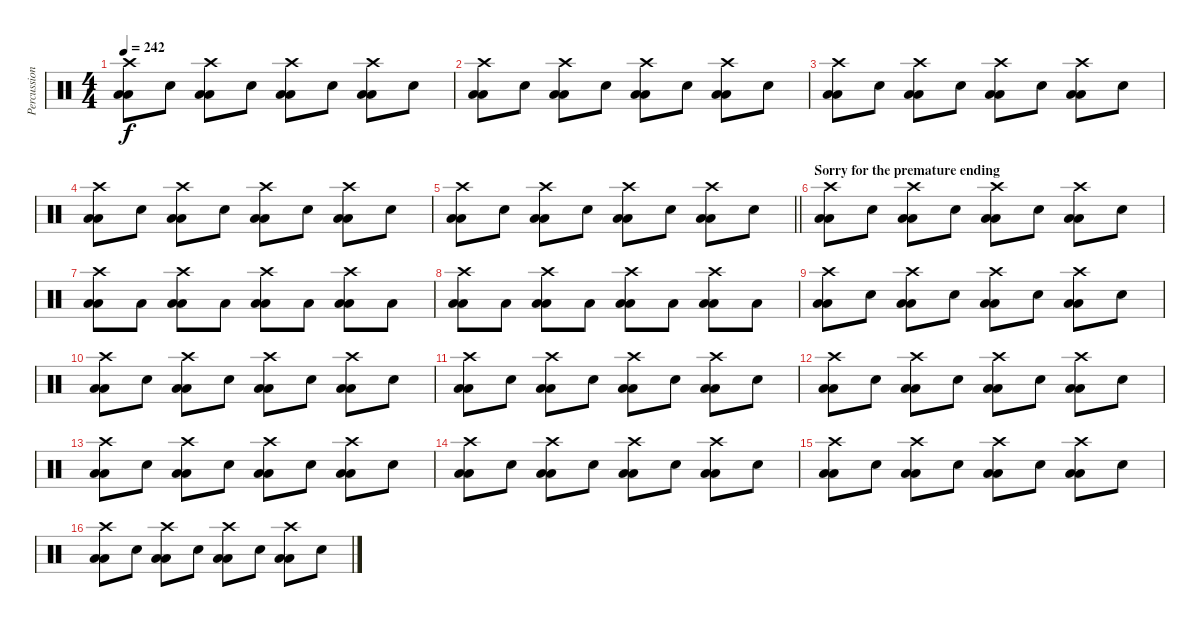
\track ("Percussion" "Percussion") {instrument percussion}
\staff {score}
\articulation defaults
\ts (4 4)
\tempo 242
\clef neutral
\ks c
("Crash high (hit)" "Low Floor Tom (hit)" "Low Tom (hit)").8{dy f} "Electric Snare (hit)".8 ("Crash high (hit)" "Low Floor Tom (hit)" "Low Tom (hit)").8 "Electric Snare (hit)".8 ("Crash high (hit)" "Low Floor Tom (hit)" "Low Tom (hit)").8 "Electric Snare (hit)".8 ("Crash high (hit)" "Low Floor Tom (hit)" "Low Tom (hit)").8 "Electric Snare (hit)".8 |
("Crash high (hit)" "Low Floor Tom (hit)" "Low Tom (hit)").8 "Electric Snare (hit)".8 ("Crash high (hit)" "Low Floor Tom (hit)" "Low Tom (hit)").8 "Electric Snare (hit)".8 ("Crash high (hit)" "Low Floor Tom (hit)" "Low Tom (hit)").8 "Electric Snare (hit)".8 ("Crash high (hit)" "Low Floor Tom (hit)" "Low Tom (hit)").8 "Electric Snare (hit)".8 |
("Crash high (hit)" "Low Floor Tom (hit)" "Low Tom (hit)").8 "Electric Snare (hit)".8 ("Crash high (hit)" "Low Floor Tom (hit)" "Low Tom (hit)").8 "Electric Snare (hit)".8 ("Crash high (hit)" "Low Floor Tom (hit)" "Low Tom (hit)").8 "Electric Snare (hit)".8 ("Crash high (hit)" "Low Floor Tom (hit)" "Low Tom (hit)").8 "Electric Snare (hit)".8 |
("Crash high (hit)" "Low Floor Tom (hit)" "Low Tom (hit)").8 "Electric Snare (hit)".8 ("Crash high (hit)" "Low Floor Tom (hit)" "Low Tom (hit)").8 "Electric Snare (hit)".8 ("Crash high (hit)" "Low Floor Tom (hit)" "Low Tom (hit)").8 "Electric Snare (hit)".8 ("Crash high (hit)" "Low Floor Tom (hit)" "Low Tom (hit)").8 "Electric Snare (hit)".8 |
\barLineRight lightlight
("Crash high (hit)" "Low Floor Tom (hit)" "Low Tom (hit)").8 "Electric Snare (hit)".8 ("Crash high (hit)" "Low Floor Tom (hit)" "Low Tom (hit)").8 "Electric Snare (hit)".8 ("Crash high (hit)" "Low Floor Tom (hit)" "Low Tom (hit)").8 "Electric Snare (hit)".8 ("Crash high (hit)" "Low Floor Tom (hit)" "Low Tom (hit)").8 "Electric Snare (hit)".8 |
\section ("" "Sorry for the premature ending")
("Crash high (hit)" "Low Floor Tom (hit)" "Low Tom (hit)").8 "Electric Snare (hit)".8 ("Crash high (hit)" "Low Floor Tom (hit)" "Low Tom (hit)").8 "Electric Snare (hit)".8 ("Crash high (hit)" "Low Floor Tom (hit)" "Low Tom (hit)").8 "Electric Snare (hit)".8 ("Crash high (hit)" "Low Floor Tom (hit)" "Low Tom (hit)").8 "Electric Snare (hit)".8 |
("Crash high (hit)" "Low Floor Tom (hit)" "Low Tom (hit)").8 "Low Floor Tom (hit)".8 ("Crash high (hit)" "Low Floor Tom (hit)" "Low Tom (hit)").8 "Low Floor Tom (hit)".8 ("Crash high (hit)" "Low Floor Tom (hit)" "Low Tom (hit)").8 "Low Floor Tom (hit)".8 ("Crash high (hit)" "Low Floor Tom (hit)" "Low Tom (hit)").8 "Low Floor Tom (hit)".8 |
("Crash high (hit)" "Low Floor Tom (hit)" "Low Tom (hit)").8 "Low Floor Tom (hit)".8 ("Crash high (hit)" "Low Floor Tom (hit)" "Low Tom (hit)").8 "Low Floor Tom (hit)".8 ("Crash high (hit)" "Low Floor Tom (hit)" "Low Tom (hit)").8 "Low Floor Tom (hit)".8 ("Crash high (hit)" "Low Floor Tom (hit)" "Low Tom (hit)").8 "Low Floor Tom (hit)".8 |
("Crash high (hit)" "Low Floor Tom (hit)" "Low Tom (hit)").8 "Electric Snare (hit)".8 ("Crash high (hit)" "Low Floor Tom (hit)" "Low Tom (hit)").8 "Electric Snare (hit)".8 ("Crash high (hit)" "Low Floor Tom (hit)" "Low Tom (hit)").8 "Electric Snare (hit)".8 ("Crash high (hit)" "Low Floor Tom (hit)" "Low Tom (hit)").8 "Electric Snare (hit)".8 |
("Crash high (hit)" "Low Floor Tom (hit)" "Low Tom (hit)").8 "Electric Snare (hit)".8 ("Crash high (hit)" "Low Floor Tom (hit)" "Low Tom (hit)").8 "Electric Snare (hit)".8 ("Crash high (hit)" "Low Floor Tom (hit)" "Low Tom (hit)").8 "Electric Snare (hit)".8 ("Crash high (hit)" "Low Floor Tom (hit)" "Low Tom (hit)").8 "Electric Snare (hit)".8 |
("Crash high (hit)" "Low Floor Tom (hit)" "Low Tom (hit)").8 "Electric Snare (hit)".8 ("Crash high (hit)" "Low Floor Tom (hit)" "Low Tom (hit)").8 "Electric Snare (hit)".8 ("Crash high (hit)" "Low Floor Tom (hit)" "Low Tom (hit)").8 "Electric Snare (hit)".8 ("Crash high (hit)" "Low Floor Tom (hit)" "Low Tom (hit)").8 "Electric Snare (hit)".8 |
("Crash high (hit)" "Low Floor Tom (hit)" "Low Tom (hit)").8 "Electric Snare (hit)".8 ("Crash high (hit)" "Low Floor Tom (hit)" "Low Tom (hit)").8 "Electric Snare (hit)".8 ("Crash high (hit)" "Low Floor Tom (hit)" "Low Tom (hit)").8 "Electric Snare (hit)".8 ("Crash high (hit)" "Low Floor Tom (hit)" "Low Tom (hit)").8 "Electric Snare (hit)".8 |
("Crash high (hit)" "Low Floor Tom (hit)" "Low Tom (hit)").8 "Electric Snare (hit)".8 ("Crash high (hit)" "Low Floor Tom (hit)" "Low Tom (hit)").8 "Electric Snare (hit)".8 ("Crash high (hit)" "Low Floor Tom (hit)" "Low Tom (hit)").8 "Electric Snare (hit)".8 ("Crash high (hit)" "Low Floor Tom (hit)" "Low Tom (hit)").8 "Electric Snare (hit)".8 |
("Crash high (hit)" "Low Floor Tom (hit)" "Low Tom (hit)").8 "Electric Snare (hit)".8 ("Crash high (hit)" "Low Floor Tom (hit)" "Low Tom (hit)").8 "Electric Snare (hit)".8 ("Crash high (hit)" "Low Floor Tom (hit)" "Low Tom (hit)").8 "Electric Snare (hit)".8 ("Crash high (hit)" "Low Floor Tom (hit)" "Low Tom (hit)").8 "Electric Snare (hit)".8 |
("Crash high (hit)" "Low Floor Tom (hit)" "Low Tom (hit)").8 "Electric Snare (hit)".8 ("Crash high (hit)" "Low Floor Tom (hit)" "Low Tom (hit)").8 "Electric Snare (hit)".8 ("Crash high (hit)" "Low Floor Tom (hit)" "Low Tom (hit)").8 "Electric Snare (hit)".8 ("Crash high (hit)" "Low Floor Tom (hit)" "Low Tom (hit)").8 "Electric Snare (hit)".8 |
("Crash high (hit)" "Low Floor Tom (hit)" "Low Tom (hit)").8 "Electric Snare (hit)".8 ("Crash high (hit)" "Low Floor Tom (hit)" "Low Tom (hit)").8 "Electric Snare (hit)".8 ("Crash high (hit)" "Low Floor Tom (hit)" "Low Tom (hit)").8 "Electric Snare (hit)".8 ("Crash high (hit)" "Low Floor Tom (hit)" "Low Tom (hit)").8 "Electric Snare (hit)".8
